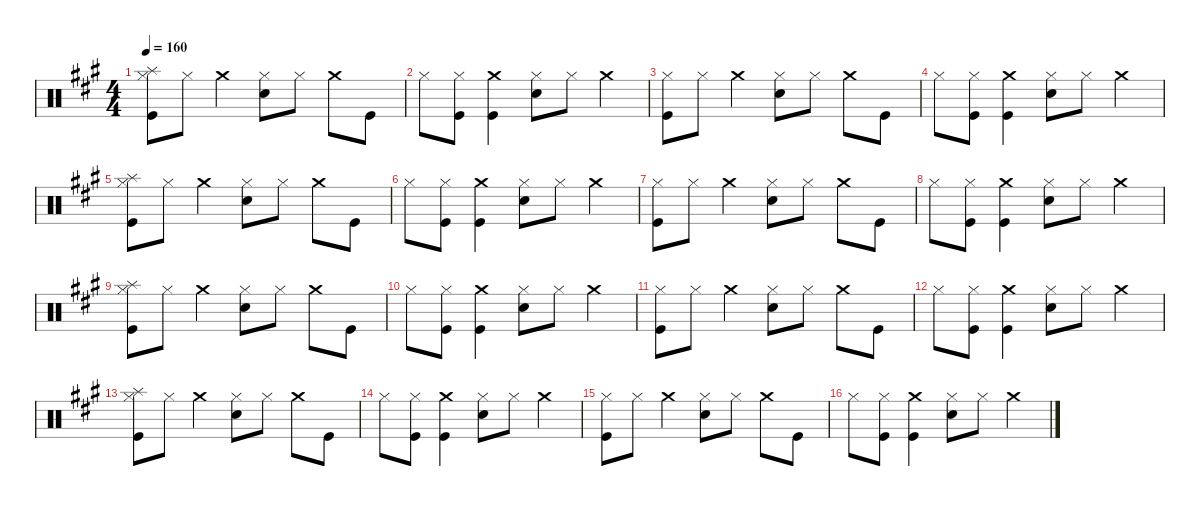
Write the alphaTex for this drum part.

\defaultSystemsLayout 4
\hideDynamics
\bracketExtendMode nobrackets
\singleTrackTrackNamePolicy hidden
\multiTrackTrackNamePolicy hidden
\firstSystemTrackNameMode fullname
\firstSystemTrackNameOrientation horizontal
\otherSystemsTrackNameOrientation horizontal
\track ("Drums" "drm.") {instrument percussion}
\staff {score}
\articulation defaults
\ts (4 4)
\tempo 160
\clef neutral
\ks f#minor
("Splash (hit)"{acc forcenatural} "Hi-Hat (closed)"{acc forcenatural} "Kick (hit)"{acc forcenatural}).8{dy f beam Down} "Hi-Hat (closed)"{acc forcenatural}.8{dy mp beam Down} "Crash medium (hit)"{acc forcenatural}.4{dy f beam Down} ("Hi-Hat (closed)"{acc forcenatural} "Snare (hit) 2"{acc forcenatural}).8{dy mp beam Down} "Hi-Hat (closed)"{acc forcenatural}.8{beam Down} "Crash medium (hit)"{acc forcenatural}.8{dy f beam Down} "Kick (hit)"{acc forcenatural}.8{beam Down} |
"Hi-Hat (closed)"{acc forcenatural}.8{dy mp beam Down} ("Hi-Hat (closed)"{acc forcenatural} "Kick (hit)"{acc forcenatural}).8{beam Down} ("Crash medium (hit)"{acc forcenatural} "Kick (hit)"{acc forcenatural}).4{dy f beam Down} ("Hi-Hat (closed)"{acc forcenatural} "Snare (hit) 2"{acc forcenatural}).8{dy mp beam Down} "Hi-Hat (closed)"{acc forcenatural}.8{beam Down} "Crash medium (hit)"{acc forcenatural}.4{dy f beam Down} |
("Hi-Hat (closed)"{acc forcenatural} "Kick (hit)"{acc forcenatural}).8{dy mp beam Down} "Hi-Hat (closed)"{acc forcenatural}.8{beam Down} "Crash medium (hit)"{acc forcenatural}.4{dy f beam Down} ("Hi-Hat (closed)"{acc forcenatural} "Snare (hit) 2"{acc forcenatural}).8{dy mp beam Down} "Hi-Hat (closed)"{acc forcenatural}.8{beam Down} "Crash medium (hit)"{acc forcenatural}.8{dy f beam Down} "Kick (hit)"{acc forcenatural}.8{beam Down} |
"Hi-Hat (closed)"{acc forcenatural}.8{dy mp beam Down} ("Hi-Hat (closed)"{acc forcenatural} "Kick (hit)"{acc forcenatural}).8{beam Down} ("Crash medium (hit)"{acc forcenatural} "Kick (hit)"{acc forcenatural}).4{dy f beam Down} ("Hi-Hat (closed)"{acc forcenatural} "Snare (hit) 2"{acc forcenatural}).8{dy mp beam Down} "Hi-Hat (closed)"{acc forcenatural}.8{beam Down} "Crash medium (hit)"{acc forcenatural}.4{dy f beam Down} |
("Splash (hit)"{acc forcenatural} "Hi-Hat (closed)"{acc forcenatural} "Kick (hit)"{acc forcenatural}).8{beam Down} "Hi-Hat (closed)"{acc forcenatural}.8{dy mp beam Down} "Crash medium (hit)"{acc forcenatural}.4{dy f beam Down} ("Hi-Hat (closed)"{acc forcenatural} "Snare (hit) 2"{acc forcenatural}).8{dy mp beam Down} "Hi-Hat (closed)"{acc forcenatural}.8{beam Down} "Crash medium (hit)"{acc forcenatural}.8{dy f beam Down} "Kick (hit)"{acc forcenatural}.8{beam Down} |
"Hi-Hat (closed)"{acc forcenatural}.8{dy mp beam Down} ("Hi-Hat (closed)"{acc forcenatural} "Kick (hit)"{acc forcenatural}).8{beam Down} ("Crash medium (hit)"{acc forcenatural} "Kick (hit)"{acc forcenatural}).4{dy f beam Down} ("Hi-Hat (closed)"{acc forcenatural} "Snare (hit) 2"{acc forcenatural}).8{dy mp beam Down} "Hi-Hat (closed)"{acc forcenatural}.8{beam Down} "Crash medium (hit)"{acc forcenatural}.4{dy f beam Down} |
("Hi-Hat (closed)"{acc forcenatural} "Kick (hit)"{acc forcenatural}).8{dy mp beam Down} "Hi-Hat (closed)"{acc forcenatural}.8{beam Down} "Crash medium (hit)"{acc forcenatural}.4{dy f beam Down} ("Hi-Hat (closed)"{acc forcenatural} "Snare (hit) 2"{acc forcenatural}).8{dy mp beam Down} "Hi-Hat (closed)"{acc forcenatural}.8{beam Down} "Crash medium (hit)"{acc forcenatural}.8{dy f beam Down} "Kick (hit)"{acc forcenatural}.8{beam Down} |
"Hi-Hat (closed)"{acc forcenatural}.8{dy mp beam Down} ("Hi-Hat (closed)"{acc forcenatural} "Kick (hit)"{acc forcenatural}).8{beam Down} ("Crash medium (hit)"{acc forcenatural} "Kick (hit)"{acc forcenatural}).4{dy f beam Down} ("Hi-Hat (closed)"{acc forcenatural} "Snare (hit) 2"{acc forcenatural}).8{dy mp beam Down} "Hi-Hat (closed)"{acc forcenatural}.8{beam Down} "Crash medium (hit)"{acc forcenatural}.4{dy f beam Down} |
("Splash (hit)"{acc forcenatural} "Hi-Hat (closed)"{acc forcenatural} "Kick (hit)"{acc forcenatural}).8{beam Down} "Hi-Hat (closed)"{acc forcenatural}.8{dy mp beam Down} "Crash medium (hit)"{acc forcenatural}.4{dy f beam Down} ("Hi-Hat (closed)"{acc forcenatural} "Snare (hit) 2"{acc forcenatural}).8{dy mp beam Down} "Hi-Hat (closed)"{acc forcenatural}.8{beam Down} "Crash medium (hit)"{acc forcenatural}.8{dy f beam Down} "Kick (hit)"{acc forcenatural}.8{beam Down} |
"Hi-Hat (closed)"{acc forcenatural}.8{dy mp beam Down} ("Hi-Hat (closed)"{acc forcenatural} "Kick (hit)"{acc forcenatural}).8{beam Down} ("Crash medium (hit)"{acc forcenatural} "Kick (hit)"{acc forcenatural}).4{dy f beam Down} ("Hi-Hat (closed)"{acc forcenatural} "Snare (hit) 2"{acc forcenatural}).8{dy mp beam Down} "Hi-Hat (closed)"{acc forcenatural}.8{beam Down} "Crash medium (hit)"{acc forcenatural}.4{dy f beam Down} |
("Hi-Hat (closed)"{acc forcenatural} "Kick (hit)"{acc forcenatural}).8{dy mp beam Down} "Hi-Hat (closed)"{acc forcenatural}.8{beam Down} "Crash medium (hit)"{acc forcenatural}.4{dy f beam Down} ("Hi-Hat (closed)"{acc forcenatural} "Snare (hit) 2"{acc forcenatural}).8{dy mp beam Down} "Hi-Hat (closed)"{acc forcenatural}.8{beam Down} "Crash medium (hit)"{acc forcenatural}.8{dy f beam Down} "Kick (hit)"{acc forcenatural}.8{beam Down} |
"Hi-Hat (closed)"{acc forcenatural}.8{dy mp beam Down} ("Hi-Hat (closed)"{acc forcenatural} "Kick (hit)"{acc forcenatural}).8{beam Down} ("Crash medium (hit)"{acc forcenatural} "Kick (hit)"{acc forcenatural}).4{dy f beam Down} ("Hi-Hat (closed)"{acc forcenatural} "Snare (hit) 2"{acc forcenatural}).8{dy mp beam Down} "Hi-Hat (closed)"{acc forcenatural}.8{beam Down} "Crash medium (hit)"{acc forcenatural}.4{dy f beam Down} |
("Splash (hit)"{acc forcenatural} "Hi-Hat (closed)"{acc forcenatural} "Kick (hit)"{acc forcenatural}).8{beam Down} "Hi-Hat (closed)"{acc forcenatural}.8{dy mp beam Down} "Crash medium (hit)"{acc forcenatural}.4{dy f beam Down} ("Hi-Hat (closed)"{acc forcenatural} "Snare (hit) 2"{acc forcenatural}).8{dy mp beam Down} "Hi-Hat (closed)"{acc forcenatural}.8{beam Down} "Crash medium (hit)"{acc forcenatural}.8{dy f beam Down} "Kick (hit)"{acc forcenatural}.8{beam Down} |
"Hi-Hat (closed)"{acc forcenatural}.8{dy mp beam Down} ("Hi-Hat (closed)"{acc forcenatural} "Kick (hit)"{acc forcenatural}).8{beam Down} ("Crash medium (hit)"{acc forcenatural} "Kick (hit)"{acc forcenatural}).4{dy f beam Down} ("Hi-Hat (closed)"{acc forcenatural} "Snare (hit) 2"{acc forcenatural}).8{dy mp beam Down} "Hi-Hat (closed)"{acc forcenatural}.8{beam Down} "Crash medium (hit)"{acc forcenatural}.4{dy f beam Down} |
("Hi-Hat (closed)"{acc forcenatural} "Kick (hit)"{acc forcenatural}).8{dy mp beam Down} "Hi-Hat (closed)"{acc forcenatural}.8{beam Down} "Crash medium (hit)"{acc forcenatural}.4{dy f beam Down} ("Hi-Hat (closed)"{acc forcenatural} "Snare (hit) 2"{acc forcenatural}).8{dy mp beam Down} "Hi-Hat (closed)"{acc forcenatural}.8{beam Down} "Crash medium (hit)"{acc forcenatural}.8{dy f beam Down} "Kick (hit)"{acc forcenatural}.8{beam Down} |
"Hi-Hat (closed)"{acc forcenatural}.8{dy mp beam Down} ("Hi-Hat (closed)"{acc forcenatural} "Kick (hit)"{acc forcenatural}).8{beam Down} ("Crash medium (hit)"{acc forcenatural} "Kick (hit)"{acc forcenatural}).4{dy f beam Down} ("Hi-Hat (closed)"{acc forcenatural} "Snare (hit) 2"{acc forcenatural}).8{dy mp beam Down} "Hi-Hat (closed)"{acc forcenatural}.8{beam Down} "Crash medium (hit)"{acc forcenatural}.4{dy f beam Down}
